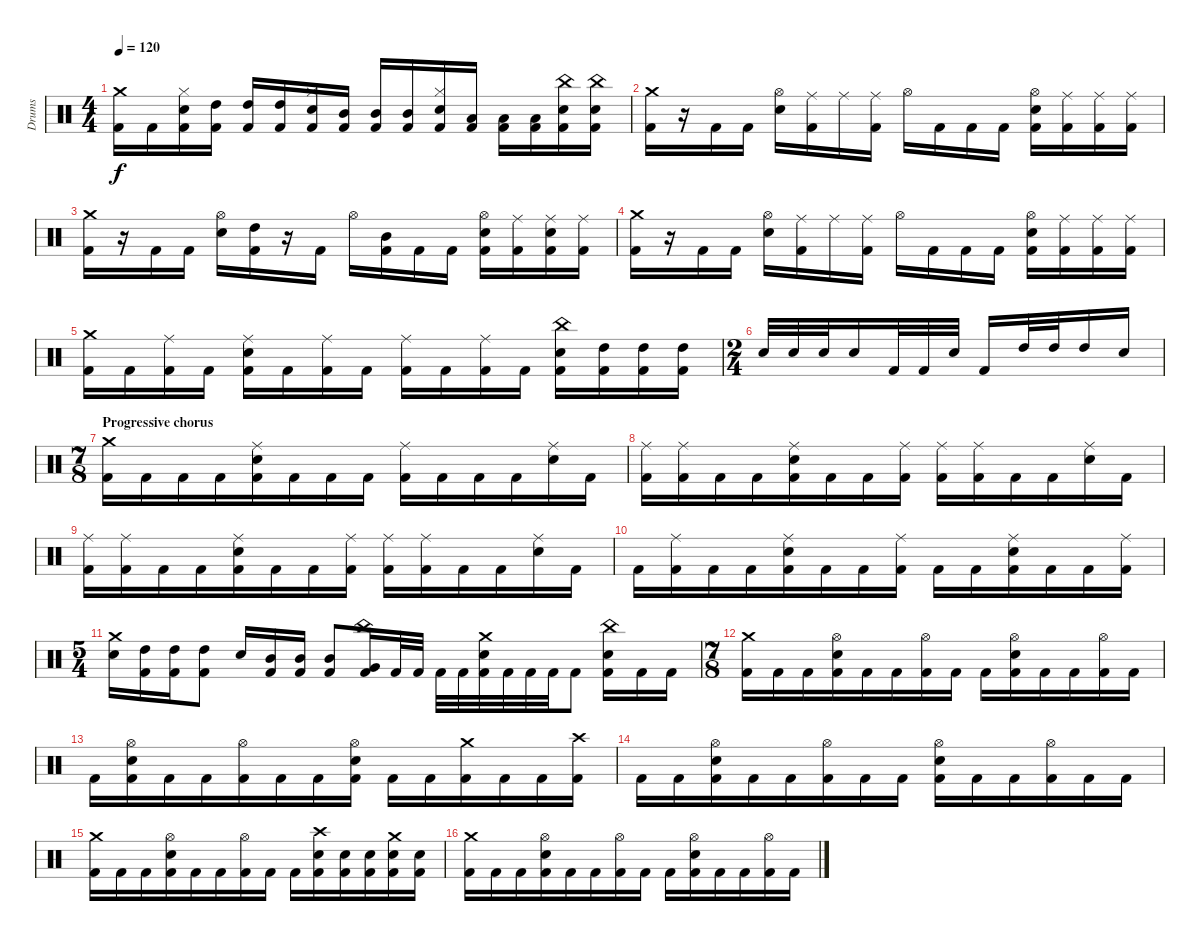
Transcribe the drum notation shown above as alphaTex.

\track ("Drums" "Drums") {instrument percussion}
\staff {score}
\articulation defaults
\ts (4 4)
\tempo 120
\clef neutral
\ks c
("Crash medium (hit)" "Kick (hit) 2").16{dy f} "Kick (hit) 2".16 ("Hi-Hat (closed)" "Electric Snare (hit)" "Kick (hit) 2").16 ("High Tom (hit)" "Kick (hit) 2").16 ("High Tom (hit)" "Kick (hit) 2").16 ("High Tom (hit)" "Kick (hit) 2").16 ("Hi-Hat (closed)" "Electric Snare (hit)" "Kick (hit) 2").16 ("Mid Tom (hit)" "Kick (hit) 2").16 ("Mid Tom (hit)" "Kick (hit) 2").16 ("Mid Tom (hit)" "Kick (hit) 2").16 ("Hi-Hat (closed)" "Electric Snare (hit)" "Kick (hit) 2").16 ("Low Tom (hit)" "Kick (hit) 2").16 ("Low Tom (hit)" "Kick (hit) 2").16 ("Low Tom (hit)" "Kick (hit) 2").16 ("China (hit)" "Electric Snare (hit)" "Kick (hit) 2").16 ("China (hit)" "Electric Snare (hit)" "Kick (hit) 2").16 |
("Crash medium (hit)" "Kick (hit) 2").16 r.16 "Kick (hit) 2".16 "Kick (hit) 2".16 ("Hi-Hat (open)" "Electric Snare (hit)").16 ("Ride (middle)" "Kick (hit) 2").16 "Ride (middle)".16 ("Ride (middle)" "Kick (hit) 2").16 "Hi-Hat (open)".16 "Kick (hit) 2".16 "Kick (hit) 2".16 "Kick (hit) 2".16 ("Hi-Hat (open)" "Electric Snare (hit)" "Kick (hit) 2").16 ("Ride (middle)" "Kick (hit) 2").16 ("Ride (middle)" "Kick (hit) 2").16 ("Ride (middle)" "Kick (hit) 2").16 |
("Crash medium (hit)" "Kick (hit) 2").16 r.16 "Kick (hit) 2".16 "Kick (hit) 2".16 ("Hi-Hat (open)" "Electric Snare (hit)").16 ("High Tom (hit)" "Kick (hit) 2").16 r.16 "Kick (hit) 2".16 "Hi-Hat (open)".16 ("Mid Tom (hit)" "Kick (hit) 2").16 "Kick (hit) 2".16 "Kick (hit) 2".16 ("Hi-Hat (open)" "Electric Snare (hit)" "Kick (hit) 2").16 ("Ride (middle)" "Kick (hit) 2").16 ("Ride (middle)" "Electric Snare (hit)" "Kick (hit) 2").16 ("Ride (middle)" "Kick (hit) 2").16 |
("Crash medium (hit)" "Kick (hit) 2").16 r.16 "Kick (hit) 2".16 "Kick (hit) 2".16 ("Hi-Hat (open)" "Electric Snare (hit)").16 ("Ride (middle)" "Kick (hit) 2").16 "Ride (middle)".16 ("Ride (middle)" "Kick (hit) 2").16 "Hi-Hat (open)".16 "Kick (hit) 2".16 "Kick (hit) 2".16 "Kick (hit) 2".16 ("Hi-Hat (open)" "Electric Snare (hit)" "Kick (hit) 2").16 ("Ride (middle)" "Kick (hit) 2").16 ("Ride (middle)" "Kick (hit) 2").16 ("Ride (middle)" "Kick (hit) 2").16 |
("Crash medium (hit)" "Kick (hit) 2").16 "Kick (hit) 2".16 ("Ride (middle)" "Kick (hit) 2").16 "Kick (hit) 2".16 ("Ride (middle)" "Electric Snare (hit)" "Kick (hit) 2").16 "Kick (hit) 2".16 ("Ride (middle)" "Kick (hit) 2").16 "Kick (hit) 2".16 ("Ride (middle)" "Kick (hit) 2").16 "Kick (hit) 2".16 ("Ride (middle)" "Kick (hit) 2").16 "Kick (hit) 2".16 ("China (hit)" "Electric Snare (hit)" "Kick (hit) 2").16 ("High Tom (hit)" "Kick (hit) 2").16 ("High Tom (hit)" "Kick (hit) 2").16 ("High Tom (hit)" "Kick (hit) 2").16 |
\ts (2 4)
"Electric Snare (hit)".32 "Electric Snare (hit)".32 "Electric Snare (hit)".32 "Electric Snare (hit)".16 "Kick (hit) 2".32 "Kick (hit) 2".32 "Electric Snare (hit)".32 "Kick (hit) 2".16 "High Tom (hit)".32 "High Tom (hit)".32 "High Tom (hit)".16 "Electric Snare (hit)".16 |
\ts (7 8)
\section ("" "Progressive chorus")
("Crash medium (hit)" "Kick (hit) 2").16 "Kick (hit) 2".16 "Kick (hit) 2".16 "Kick (hit) 2".16 ("Ride (middle)" "Electric Snare (hit)" "Kick (hit) 2").16 "Kick (hit) 2".16 "Kick (hit) 2".16 "Kick (hit) 2".16 ("Ride (middle)" "Kick (hit) 2").16 "Kick (hit) 2".16 "Kick (hit) 2".16 "Kick (hit) 2".16 ("Ride (middle)" "Electric Snare (hit)").16 "Kick (hit) 2".16 |
("Ride (middle)" "Kick (hit) 2").16 ("Ride (middle)" "Kick (hit) 2").16 "Kick (hit) 2".16 "Kick (hit) 2".16 ("Ride (middle)" "Electric Snare (hit)" "Kick (hit) 2").16 "Kick (hit) 2".16 "Kick (hit) 2".16 ("Ride (middle)" "Kick (hit) 2").16 ("Ride (middle)" "Kick (hit) 2").16 ("Ride (middle)" "Kick (hit) 2").16 "Kick (hit) 2".16 "Kick (hit) 2".16 ("Ride (middle)" "Electric Snare (hit)").16 "Kick (hit) 2".16 |
("Ride (middle)" "Kick (hit) 2").16 ("Ride (middle)" "Kick (hit) 2").16 "Kick (hit) 2".16 "Kick (hit) 2".16 ("Ride (middle)" "Electric Snare (hit)" "Kick (hit) 2").16 "Kick (hit) 2".16 "Kick (hit) 2".16 ("Ride (middle)" "Kick (hit) 2").16 ("Ride (middle)" "Kick (hit) 2").16 ("Ride (middle)" "Kick (hit) 2").16 "Kick (hit) 2".16 "Kick (hit) 2".16 ("Ride (middle)" "Electric Snare (hit)").16 "Kick (hit) 2".16 |
"Kick (hit) 2".16 ("Ride (middle)" "Kick (hit) 2").16 "Kick (hit) 2".16 "Kick (hit) 2".16 ("Ride (middle)" "Electric Snare (hit)" "Kick (hit) 2").16 "Kick (hit) 2".16 "Kick (hit) 2".16 ("Ride (middle)" "Kick (hit) 2").16 "Kick (hit) 2".16 "Kick (hit) 2".16 ("Ride (middle)" "Electric Snare (hit)" "Kick (hit) 2").16 "Kick (hit) 2".16 "Kick (hit) 2".16 ("Ride (middle)" "Kick (hit) 2").16 |
\ts (5 4)
("Crash medium (hit)" "Electric Snare (hit)").16 ("High Tom (hit)" "Kick (hit) 2").16 ("High Tom (hit)" "Kick (hit) 2").16 ("High Tom (hit)" "Kick (hit) 2").8 "Electric Snare (hit)".16 ("Mid Tom (hit)" "Kick (hit) 2").16 ("Mid Tom (hit)" "Kick (hit) 2").16 ("Mid Tom (hit)" "Kick (hit) 2").8 ("China (hit)" "Very Low Tom (hit)" "Kick (hit) 2").16 "Kick (hit) 2".32 "Kick (hit) 2".32 "Kick (hit) 2".32 "Kick (hit) 2".32 ("Crash medium (hit)" "Electric Snare (hit)" "Kick (hit) 2").32 "Kick (hit) 2".32 "Kick (hit) 2".32 "Kick (hit) 2".32 "Kick (hit) 2".8 ("China (hit)" "Electric Snare (hit)" "Kick (hit) 2").16 "Kick (hit) 2".16 "Kick (hit) 2".16 |
\ts (7 8)
("Crash medium (hit)" "Kick (hit) 2").16 "Kick (hit) 2".16 "Kick (hit) 2".16 ("Hi-Hat (open)" "Electric Snare (hit)" "Kick (hit) 2").16 "Kick (hit) 2".16 "Kick (hit) 2".16 ("Hi-Hat (open)" "Kick (hit) 2").16 "Kick (hit) 2".16 "Kick (hit) 2".16 ("Hi-Hat (open)" "Electric Snare (hit)" "Kick (hit) 2").16 "Kick (hit) 2".16 "Kick (hit) 2".16 ("Hi-Hat (open)" "Kick (hit) 2").16 "Kick (hit) 2".16 |
"Kick (hit) 2".16 ("Hi-Hat (open)" "Electric Snare (hit)" "Kick (hit) 2").16 "Kick (hit) 2".16 "Kick (hit) 2".16 ("Hi-Hat (open)" "Kick (hit) 2").16 "Kick (hit) 2".16 "Kick (hit) 2".16 ("Hi-Hat (open)" "Electric Snare (hit)" "Kick (hit) 2").16 "Kick (hit) 2".16 "Kick (hit) 2".16 ("Crash medium (hit)" "Kick (hit) 2").16 "Kick (hit) 2".16 "Kick (hit) 2".16 ("Crash high (hit)" "Kick (hit) 2").16 |
"Kick (hit) 2".16 "Kick (hit) 2".16 ("Hi-Hat (open)" "Electric Snare (hit)" "Kick (hit) 2").16 "Kick (hit) 2".16 "Kick (hit) 2".16 ("Hi-Hat (open)" "Kick (hit) 2").16 "Kick (hit) 2".16 "Kick (hit) 2".16 ("Hi-Hat (open)" "Electric Snare (hit)" "Kick (hit) 2").16 "Kick (hit) 2".16 "Kick (hit) 2".16 ("Hi-Hat (open)" "Kick (hit) 2").16 "Kick (hit) 2".16 "Kick (hit) 2".16 |
("Crash medium (hit)" "Kick (hit) 2").16 "Kick (hit) 2".16 "Kick (hit) 2".16 ("Hi-Hat (open)" "Electric Snare (hit)" "Kick (hit) 2").16 "Kick (hit) 2".16 "Kick (hit) 2".16 ("Hi-Hat (open)" "Kick (hit) 2").16 "Kick (hit) 2".16 "Kick (hit) 2".16 ("Crash high (hit)" "Electric Snare (hit)" "Kick (hit) 2").16 ("Electric Snare (hit)" "Kick (hit) 2").16 ("Electric Snare (hit)" "Kick (hit) 2").16 ("Crash medium (hit)" "Electric Snare (hit)" "Kick (hit) 2").16 ("Electric Snare (hit)" "Kick (hit) 2").16 |
("Crash medium (hit)" "Kick (hit) 2").16 "Kick (hit) 2".16 "Kick (hit) 2".16 ("Hi-Hat (open)" "Electric Snare (hit)" "Kick (hit) 2").16 "Kick (hit) 2".16 "Kick (hit) 2".16 ("Hi-Hat (open)" "Kick (hit) 2").16 "Kick (hit) 2".16 "Kick (hit) 2".16 ("Hi-Hat (open)" "Electric Snare (hit)" "Kick (hit) 2").16 "Kick (hit) 2".16 "Kick (hit) 2".16 ("Hi-Hat (open)" "Kick (hit) 2").16 "Kick (hit) 2".16
